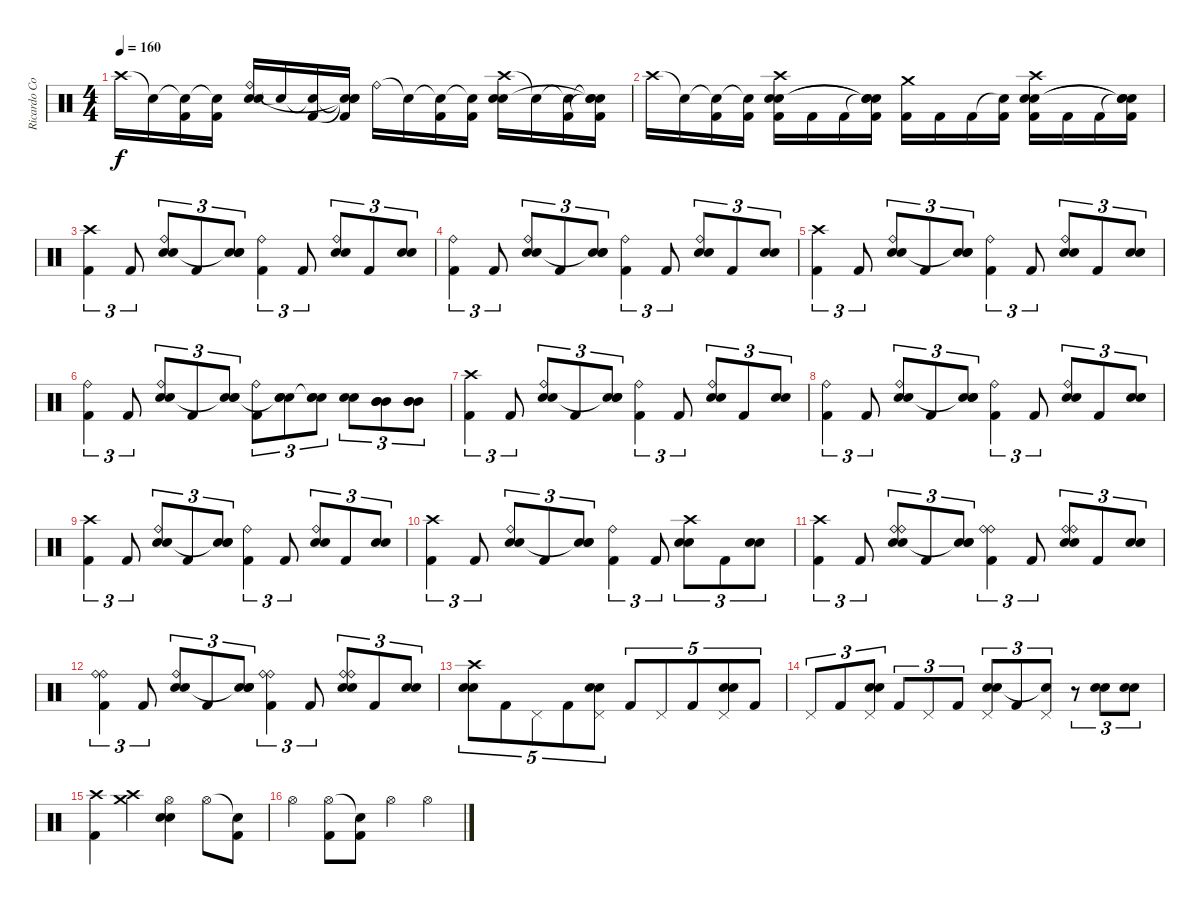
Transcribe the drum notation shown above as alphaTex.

\track ("Ricardo Confessori" "Ricardo Co") {instrument percussion}
\staff {score}
\articulation defaults
\ts (4 4)
\tempo 160
\clef neutral
\ks c "Crash high (hit)".16{dy f} "Snare (hit)"{t}.16
("Snare (hit)"{t} "Kick (hit) 2").16 ("Snare (hit)"{t} "Kick (hit) 2").16 ("Ride (bell)" "Electric Snare (hit)" "Snare (hit) 2").16 "Snare (hit)"{t}.16 ("Snare (hit)"{t} "Kick (hit) 2").16 ("Snare (hit)"{t} "Snare (hit)"{t} "Snare (hit)"{t} "Kick (hit) 2").16 "Ride (bell)".16 "Snare (hit)"{t}.16 ("Snare (hit)"{t} "Kick (hit) 2").16 ("Snare (hit)"{t} "Kick (hit) 2").16 ("Crash high (hit)" "Electric Snare (hit)" "Snare (hit) 2").16 "Snare (hit)"{t}.16 ("Snare (hit)"{t} "Kick (hit) 2").16 ("Snare (hit)"{t} "Snare (hit)"{t} "Snare (hit)"{t} "Kick (hit) 2").16 |
"Crash high (hit)".16 "Snare (hit)"{t}.16 ("Snare (hit)"{t} "Kick (hit) 2").16 ("Snare (hit)"{t} "Kick (hit) 2").16 ("Crash high (hit)" "Electric Snare (hit)" "Snare (hit) 2" "Kick (hit) 2").16 "Kick (hit) 2".16 "Kick (hit) 2".16 ("Snare (hit)"{t} "Snare (hit)"{t} "Snare (hit)"{t} "Kick (hit) 2").16 ("Crash medium (hit)" "Kick (hit) 2").16 "Kick (hit) 2".16 "Kick (hit) 2".16 ("Snare (hit)"{t} "Kick (hit) 2").16 ("Crash high (hit)" "Electric Snare (hit)" "Snare (hit) 2" "Kick (hit) 2").16 "Kick (hit) 2".16 "Kick (hit) 2".16 ("Snare (hit)"{t} "Snare (hit)"{t} "Snare (hit)"{t} "Kick (hit) 2").16 |
("Crash high (hit)" "Kick (hit) 2").4{tu (3 2)} "Kick (hit) 2".8{tu (3 2)} ("Ride (bell)" "Electric Snare (hit)" "Snare (hit) 2").8{tu (3 2)} "Kick (hit) 2".8{tu (3 2)} ("Electric Snare (hit)" "Snare (hit) 2" "Snare (hit)"{t}).8{tu (3 2)} ("Ride (bell)" "Kick (hit) 2").4{tu (3 2)} "Kick (hit) 2".8{tu (3 2)} ("Ride (bell)" "Electric Snare (hit)" "Snare (hit) 2").8{tu (3 2)} "Kick (hit) 2".8{tu (3 2)} ("Electric Snare (hit)" "Snare (hit) 2").8{tu (3 2)} |
("Ride (bell)" "Kick (hit) 2").4{tu (3 2)} "Kick (hit) 2".8{tu (3 2)} ("Ride (bell)" "Electric Snare (hit)" "Snare (hit) 2").8{tu (3 2)} "Kick (hit) 2".8{tu (3 2)} ("Electric Snare (hit)" "Snare (hit) 2" "Snare (hit)"{t}).8{tu (3 2)} ("Ride (bell)" "Kick (hit) 2").4{tu (3 2)} "Kick (hit) 2".8{tu (3 2)} ("Ride (bell)" "Electric Snare (hit)" "Snare (hit) 2").8{tu (3 2)} "Kick (hit) 2".8{tu (3 2)} ("Electric Snare (hit)" "Snare (hit) 2").8{tu (3 2)} |
("Crash high (hit)" "Kick (hit) 2").4{tu (3 2)} "Kick (hit) 2".8{tu (3 2)} ("Ride (bell)" "Electric Snare (hit)" "Snare (hit) 2").8{tu (3 2)} "Kick (hit) 2".8{tu (3 2)} ("Electric Snare (hit)" "Snare (hit) 2" "Snare (hit)"{t}).8{tu (3 2)} ("Ride (bell)" "Kick (hit) 2").4{tu (3 2)} "Kick (hit) 2".8{tu (3 2)} ("Ride (bell)" "Electric Snare (hit)" "Snare (hit) 2").8{tu (3 2)} "Kick (hit) 2".8{tu (3 2)} ("Electric Snare (hit)" "Snare (hit) 2").8{tu (3 2)} |
("Ride (bell)" "Kick (hit) 2").4{tu (3 2)} "Kick (hit) 2".8{tu (3 2)} ("Ride (bell)" "Electric Snare (hit)" "Snare (hit) 2").8{tu (3 2)} "Kick (hit) 2".8{tu (3 2)} ("Electric Snare (hit)" "Snare (hit) 2" "Snare (hit)"{t}).8{tu (3 2)} ("Ride (bell)" "Kick (hit) 2").8{tu (3 2)} ("Snare (hit) 2" "Electric Snare (hit)" "Snare (hit)"{t}).8{tu (3 2)} ("Snare (hit) 2" "Electric Snare (hit)" "Snare (hit)"{t}).8{tu (3 2)} ("Electric Snare (hit)" "Snare (hit) 2").8{tu (3 2)} ("Mid Tom (hit)" "Mid Tom (hit)" "Mid Tom (hit)").8{tu (3 2)} ("Mid Tom (hit)" "Mid Tom (hit)" "Mid Tom (hit)").8{tu (3 2)} |
("Crash high (hit)" "Kick (hit) 2").4{tu (3 2)} "Kick (hit) 2".8{tu (3 2)} ("Ride (bell)" "Electric Snare (hit)" "Snare (hit) 2").8{tu (3 2)} "Kick (hit) 2".8{tu (3 2)} ("Electric Snare (hit)" "Snare (hit) 2" "Snare (hit)"{t}).8{tu (3 2)} ("Ride (bell)" "Kick (hit) 2").4{tu (3 2)} "Kick (hit) 2".8{tu (3 2)} ("Ride (bell)" "Electric Snare (hit)" "Snare (hit) 2").8{tu (3 2)} "Kick (hit) 2".8{tu (3 2)} ("Electric Snare (hit)" "Snare (hit) 2").8{tu (3 2)} |
("Ride (bell)" "Kick (hit) 2").4{tu (3 2)} "Kick (hit) 2".8{tu (3 2)} ("Ride (bell)" "Electric Snare (hit)" "Snare (hit) 2").8{tu (3 2)} "Kick (hit) 2".8{tu (3 2)} ("Electric Snare (hit)" "Snare (hit) 2" "Snare (hit)"{t}).8{tu (3 2)} ("Ride (bell)" "Kick (hit) 2").4{tu (3 2)} "Kick (hit) 2".8{tu (3 2)} ("Ride (bell)" "Electric Snare (hit)" "Snare (hit) 2").8{tu (3 2)} "Kick (hit) 2".8{tu (3 2)} ("Electric Snare (hit)" "Snare (hit) 2").8{tu (3 2)} |
("Crash high (hit)" "Kick (hit) 2").4{tu (3 2)} "Kick (hit) 2".8{tu (3 2)} ("Ride (bell)" "Electric Snare (hit)" "Snare (hit) 2").8{tu (3 2)} "Kick (hit) 2".8{tu (3 2)} ("Electric Snare (hit)" "Snare (hit) 2" "Snare (hit)"{t}).8{tu (3 2)} ("Ride (bell)" "Kick (hit) 2").4{tu (3 2)} "Kick (hit) 2".8{tu (3 2)} ("Ride (bell)" "Electric Snare (hit)" "Snare (hit) 2").8{tu (3 2)} "Kick (hit) 2".8{tu (3 2)} ("Electric Snare (hit)" "Snare (hit) 2").8{tu (3 2)} |
("Crash high (hit)" "Kick (hit) 2").4{tu (3 2)} "Kick (hit) 2".8{tu (3 2)} ("Ride (bell)" "Electric Snare (hit)" "Snare (hit) 2").8{tu (3 2)} "Kick (hit) 2".8{tu (3 2)} ("Electric Snare (hit)" "Snare (hit) 2" "Snare (hit)"{t}).8{tu (3 2)} ("Ride (bell)" "Kick (hit) 2").4{tu (3 2)} "Kick (hit) 2".8{tu (3 2)} ("Crash high (hit)" "Electric Snare (hit)" "Snare (hit) 2").8{tu (3 2)} "Kick (hit) 2".8{tu (3 2)} ("Electric Snare (hit)" "Snare (hit) 2").8{tu (3 2)} |
("Crash high (hit)" "Kick (hit) 2").4{tu (3 2)} "Kick (hit) 2".8{tu (3 2)} ("Ride (bell)" "Electric Snare (hit)" "Snare (hit) 2" "Ride (bell)").8{tu (3 2)} "Kick (hit) 2".8{tu (3 2)} ("Electric Snare (hit)" "Snare (hit) 2" "Snare (hit)"{t}).8{tu (3 2)} ("Ride (bell)" "Ride (bell)" "Kick (hit) 2").4{tu (3 2)} "Kick (hit) 2".8{tu (3 2)} ("Ride (bell)" "Electric Snare (hit)" "Snare (hit) 2" "Ride (bell)").8{tu (3 2)} "Kick (hit) 2".8{tu (3 2)} ("Electric Snare (hit)" "Snare (hit) 2").8{tu (3 2)} |
("Ride (bell)" "Ride (bell)" "Kick (hit) 2").4{tu (3 2)} "Kick (hit) 2".8{tu (3 2)} ("Ride (bell)" "Electric Snare (hit)" "Snare (hit) 2").8{tu (3 2)} "Kick (hit) 2".8{tu (3 2)} ("Electric Snare (hit)" "Snare (hit) 2" "Snare (hit)"{t}).8{tu (3 2)} ("Ride (bell)" "Ride (bell)" "Kick (hit) 2").4{tu (3 2)} "Kick (hit) 2".8{tu (3 2)} ("Ride (bell)" "Electric Snare (hit)" "Snare (hit) 2" "Ride (bell)").8{tu (3 2)} "Kick (hit) 2".8{tu (3 2)} ("Electric Snare (hit)" "Snare (hit) 2").8{tu (3 2)} |
("Crash high (hit)" "Electric Snare (hit)" "Snare (hit) 2").8{tu (5 4)} "Kick (hit) 2".8{tu (5 4)} "Pedal Hi-Hat (hit)".8{tu (5 4)} "Kick (hit) 2".8{tu (5 4)} ("Pedal Hi-Hat (hit)" "Electric Snare (hit)" "Snare (hit) 2").8{tu (5 4)} "Kick (hit) 2".8{tu (5 4)} "Pedal Hi-Hat (hit)".8{tu (5 4)} "Kick (hit) 2".8{tu (5 4)} ("Pedal Hi-Hat (hit)" "Electric Snare (hit)" "Snare (hit) 2").8{tu (5 4)} "Kick (hit) 2".8{tu (5 4)} |
"Pedal Hi-Hat (hit)".8{tu (3 2)} "Kick (hit) 2".8{tu (3 2)} ("Pedal Hi-Hat (hit)" "Electric Snare (hit)" "Snare (hit) 2").8{tu (3 2)} "Kick (hit) 2".8{tu (3 2)} "Pedal Hi-Hat (hit)".8{tu (3 2)} "Kick (hit) 2".8{tu (3 2)} ("Pedal Hi-Hat (hit)" "Electric Snare (hit)" "Snare (hit) 2").8{tu (3 2)} "Kick (hit) 2".8{tu (3 2)} ("Pedal Hi-Hat (hit)" "Snare (hit)"{t}).8{tu (3 2)} r.8{tu (3 2)} ("Snare (hit) 2" "Electric Snare (hit)").8{tu (3 2)} ("Snare (hit) 2" "Electric Snare (hit)").8{tu (3 2)} |
("Crash high (hit)" "Kick (hit) 2").4 ("Crash medium (hit)" "Crash high (hit)").4 ("Hi-Hat (open)" "Electric Snare (hit)" "Snare (hit) 2").4 "Hi-Hat (open)".8 ("Snare (hit)"{t} "Kick (hit) 2").8 |
"Hi-Hat (open)".4 ("Hi-Hat (open)" "Kick (hit) 2").8 ("Snare (hit)"{t} "Kick (hit) 2").8 "Hi-Hat (open)".4 "Hi-Hat (open)".4
